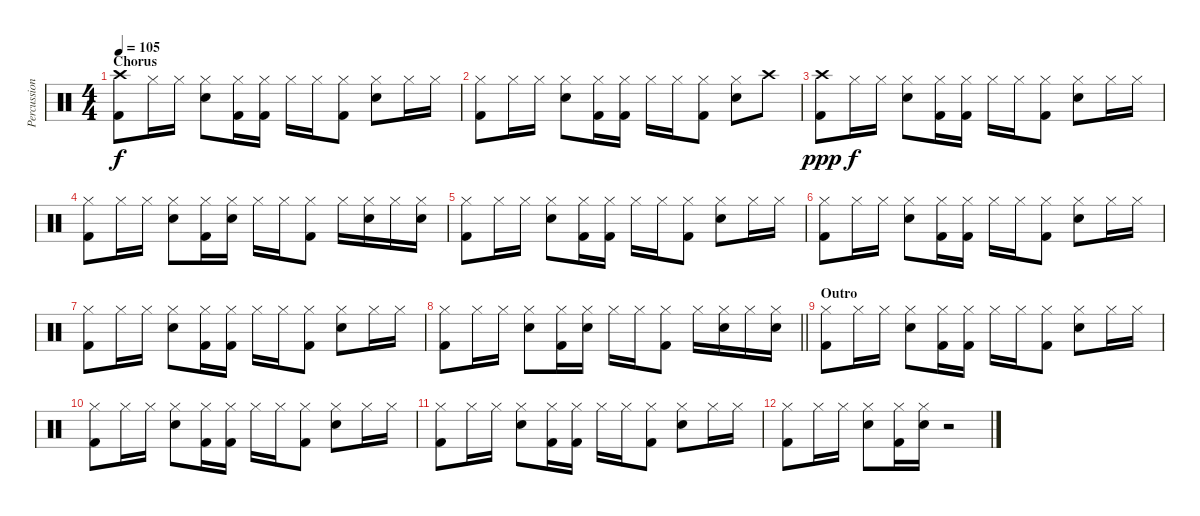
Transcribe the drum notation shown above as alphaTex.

\track ("Percussion" "Percussion") {instrument percussion}
\staff {score}
\articulation defaults
\ts (4 4)
\section ("" "Chorus")
\tempo 105
\clef neutral
\ks c
("Crash high (hit)" "Kick (hit) 2").8{dy f volume 13} "Hi-Hat (closed)".16 "Hi-Hat (closed)".16 ("Hi-Hat (closed)" "Electric Snare (hit)").8 ("Hi-Hat (closed)" "Kick (hit) 2").16 ("Hi-Hat (closed)" "Kick (hit) 2").16 "Hi-Hat (closed)".16 "Hi-Hat (closed)".16 ("Hi-Hat (closed)" "Kick (hit) 2").8 ("Hi-Hat (closed)" "Electric Snare (hit)").8 "Hi-Hat (closed)".16 "Hi-Hat (closed)".16 |
("Hi-Hat (closed)" "Kick (hit) 2").8 "Hi-Hat (closed)".16 "Hi-Hat (closed)".16 ("Hi-Hat (closed)" "Electric Snare (hit)").8 ("Hi-Hat (closed)" "Kick (hit) 2").16 ("Hi-Hat (closed)" "Kick (hit) 2").16 "Hi-Hat (closed)".16 "Hi-Hat (closed)".16 ("Hi-Hat (closed)" "Kick (hit) 2").8 ("Hi-Hat (closed)" "Electric Snare (hit)").8 "Crash high (hit)".8 |
("Crash high (hit)" "Kick (hit) 2").8{dy ppp} "Hi-Hat (closed)".16{dy f} "Hi-Hat (closed)".16 ("Hi-Hat (closed)" "Electric Snare (hit)").8 ("Hi-Hat (closed)" "Kick (hit) 2").16 ("Hi-Hat (closed)" "Kick (hit) 2").16 "Hi-Hat (closed)".16 "Hi-Hat (closed)".16 ("Hi-Hat (closed)" "Kick (hit) 2").8 ("Hi-Hat (closed)" "Electric Snare (hit)").8 "Hi-Hat (closed)".16 "Hi-Hat (closed)".16 |
("Hi-Hat (closed)" "Kick (hit) 2").8 "Hi-Hat (closed)".16 "Hi-Hat (closed)".16 ("Hi-Hat (closed)" "Electric Snare (hit)").8 ("Hi-Hat (closed)" "Kick (hit) 2").16 ("Hi-Hat (closed)" "Electric Snare (hit)").16 "Hi-Hat (closed)".16 "Hi-Hat (closed)".16 ("Hi-Hat (closed)" "Kick (hit) 2").8 "Hi-Hat (closed)".16 ("Hi-Hat (closed)" "Electric Snare (hit)").16 "Hi-Hat (closed)".16 ("Hi-Hat (closed)" "Electric Snare (hit)").16 |
("Hi-Hat (closed)" "Kick (hit) 2").8 "Hi-Hat (closed)".16 "Hi-Hat (closed)".16 ("Hi-Hat (closed)" "Electric Snare (hit)").8 ("Hi-Hat (closed)" "Kick (hit) 2").16 ("Hi-Hat (closed)" "Kick (hit) 2").16 "Hi-Hat (closed)".16 "Hi-Hat (closed)".16 ("Hi-Hat (closed)" "Kick (hit) 2").8 ("Hi-Hat (closed)" "Electric Snare (hit)").8 "Hi-Hat (closed)".16 "Hi-Hat (closed)".16 |
("Hi-Hat (closed)" "Kick (hit) 2").8 "Hi-Hat (closed)".16 "Hi-Hat (closed)".16 ("Hi-Hat (closed)" "Electric Snare (hit)").8 ("Hi-Hat (closed)" "Kick (hit) 2").16 ("Hi-Hat (closed)" "Kick (hit) 2").16 "Hi-Hat (closed)".16 "Hi-Hat (closed)".16 ("Hi-Hat (closed)" "Kick (hit) 2").8 ("Hi-Hat (closed)" "Electric Snare (hit)").8 "Hi-Hat (closed)".16 "Hi-Hat (closed)".16 |
("Hi-Hat (closed)" "Kick (hit) 2").8 "Hi-Hat (closed)".16 "Hi-Hat (closed)".16 ("Hi-Hat (closed)" "Electric Snare (hit)").8 ("Hi-Hat (closed)" "Kick (hit) 2").16 ("Hi-Hat (closed)" "Kick (hit) 2").16 "Hi-Hat (closed)".16 "Hi-Hat (closed)".16 ("Hi-Hat (closed)" "Kick (hit) 2").8 ("Hi-Hat (closed)" "Electric Snare (hit)").8 "Hi-Hat (closed)".16 "Hi-Hat (closed)".16 |
\barLineRight lightlight
("Hi-Hat (closed)" "Kick (hit) 2").8 "Hi-Hat (closed)".16 "Hi-Hat (closed)".16 ("Hi-Hat (closed)" "Electric Snare (hit)").8 ("Hi-Hat (closed)" "Kick (hit) 2").16 ("Hi-Hat (closed)" "Electric Snare (hit)").16 "Hi-Hat (closed)".16 "Hi-Hat (closed)".16 ("Hi-Hat (closed)" "Kick (hit) 2").8 "Hi-Hat (closed)".16 ("Hi-Hat (closed)" "Electric Snare (hit)").16 "Hi-Hat (closed)".16 ("Hi-Hat (closed)" "Electric Snare (hit)").16 |
\section ("" "Outro")
("Hi-Hat (closed)" "Kick (hit) 2").8 "Hi-Hat (closed)".16 "Hi-Hat (closed)".16 ("Hi-Hat (closed)" "Electric Snare (hit)").8 ("Hi-Hat (closed)" "Kick (hit) 2").16 ("Hi-Hat (closed)" "Kick (hit) 2").16 "Hi-Hat (closed)".16 "Hi-Hat (closed)".16 ("Hi-Hat (closed)" "Kick (hit) 2").8 ("Hi-Hat (closed)" "Electric Snare (hit)").8 "Hi-Hat (closed)".16 "Hi-Hat (closed)".16 |
("Hi-Hat (closed)" "Kick (hit) 2").8 "Hi-Hat (closed)".16 "Hi-Hat (closed)".16 ("Hi-Hat (closed)" "Electric Snare (hit)").8 ("Hi-Hat (closed)" "Kick (hit) 2").16 ("Hi-Hat (closed)" "Kick (hit) 2").16 "Hi-Hat (closed)".16 "Hi-Hat (closed)".16 ("Hi-Hat (closed)" "Kick (hit) 2").8 ("Hi-Hat (closed)" "Electric Snare (hit)").8 "Hi-Hat (closed)".16 "Hi-Hat (closed)".16 |
("Hi-Hat (closed)" "Kick (hit) 2").8 "Hi-Hat (closed)".16 "Hi-Hat (closed)".16 ("Hi-Hat (closed)" "Electric Snare (hit)").8 ("Hi-Hat (closed)" "Kick (hit) 2").16 ("Hi-Hat (closed)" "Kick (hit) 2").16 "Hi-Hat (closed)".16 "Hi-Hat (closed)".16 ("Hi-Hat (closed)" "Kick (hit) 2").8 ("Hi-Hat (closed)" "Electric Snare (hit)").8 "Hi-Hat (closed)".16 "Hi-Hat (closed)".16 |
("Hi-Hat (closed)" "Kick (hit) 2").8 "Hi-Hat (closed)".16 "Hi-Hat (closed)".16 ("Hi-Hat (closed)" "Electric Snare (hit)").8 ("Hi-Hat (closed)" "Kick (hit) 2").16 ("Hi-Hat (closed)" "Electric Snare (hit)").16 r.2
